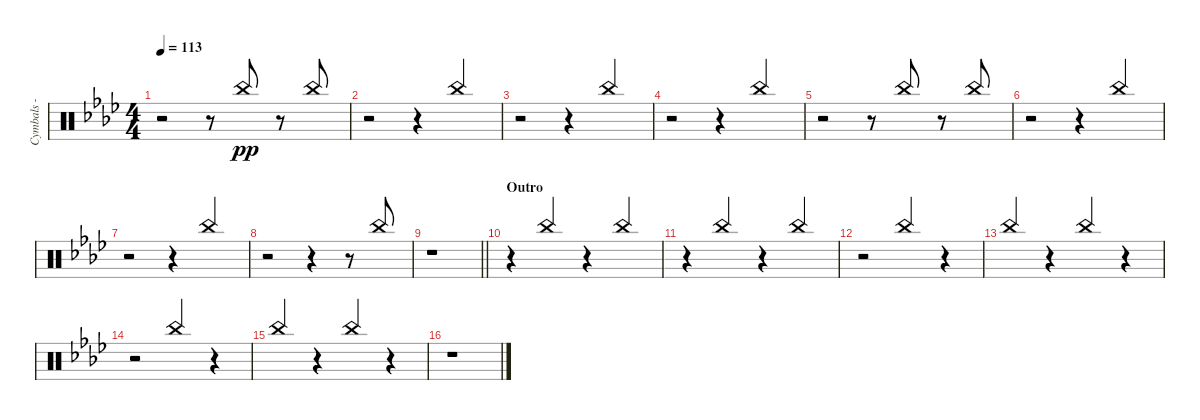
\track ("Cymbals - china" "Cymbals - ") {instrument percussion}
\staff {score}
\articulation defaults
\ts (4 4)
\tempo 113
\clef neutral
\ks fminor
r.2{dy pp} r.8 "China (hit)".8{beam Up} r.8 "China (hit)".8{beam Up} |
r.2 r.4 "China (hit)".4{beam Up} |
r.2 r.4 "China (hit)".4{beam Up} |
r.2 r.4 "China (hit)".4{beam Up} |
r.2 r.8 "China (hit)".8{beam Up} r.8 "China (hit)".8{beam Up} |
r.2 r.4 "China (hit)".4{beam Up} |
r.2 r.4 "China (hit)".4{beam Up} |
r.2 r.4 r.8 "China (hit)".8{beam Up} |
\barLineRight lightlight
r.1 |
\section ("" "Outro")
r.4 "China (hit)".4{beam Up} r.4 "China (hit)".4{beam Up} |
r.4 "China (hit)".4{beam Up} r.4 "China (hit)".4{beam Up} |
r.2 "China (hit)".4{beam Up} r.4 |
"China (hit)".4{beam Up} r.4 "China (hit)".4{beam Up} r.4 |
r.2 "China (hit)".4{beam Up} r.4 |
"China (hit)".4{beam Up} r.4 "China (hit)".4{beam Up} r.4 |
r.1
